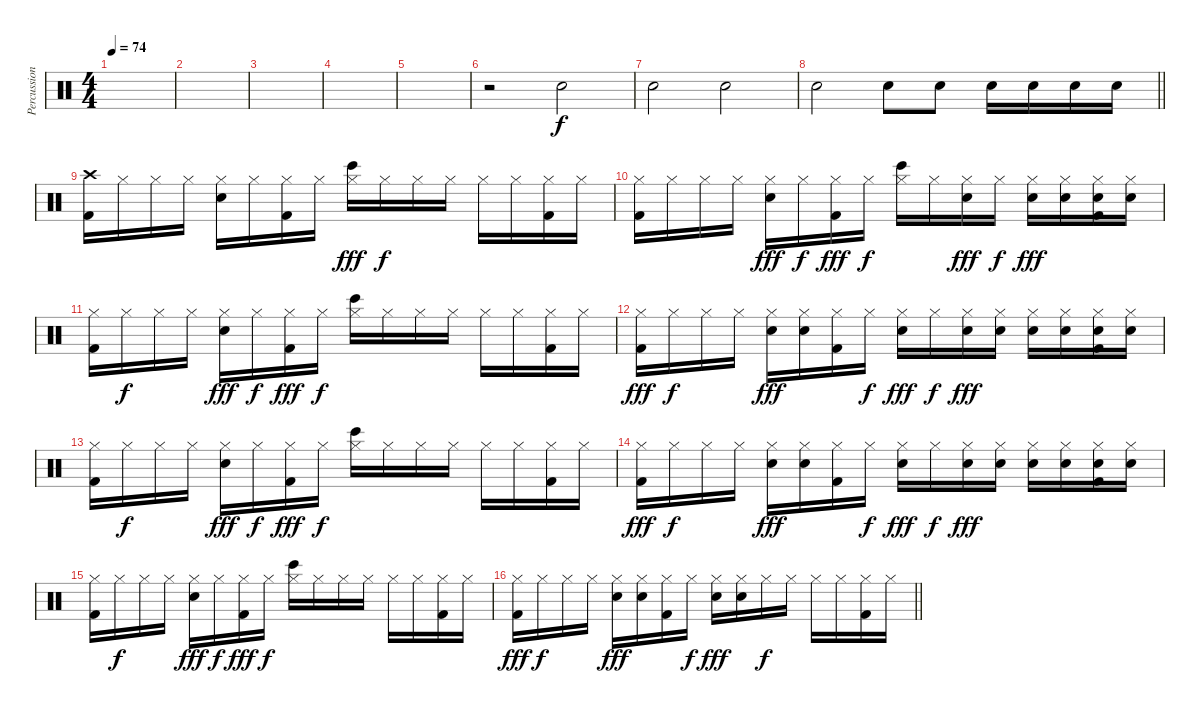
\track ("Percussion" "Percussion") {instrument percussion}
\staff {score}
\articulation defaults
\ts (4 4)
\section ("" "")
\tempo 74
\clef neutral
\ks c
|
|
|
|
|
r.2 "Snare (hit) 2".2 |
"Snare (hit) 2".2 "Snare (hit) 2".2 |
\barLineRight lightlight "Snare (hit) 2".2 "Snare (hit) 2".8 "Snare (hit) 2".8 "Snare (hit) 2".16 "Snare (hit) 2".16 "Snare (hit) 2".16 "Snare (hit) 2".16
|
\section ("" "")
("Crash high (hit)" "Kick (hit) 2").16 "Hi-Hat (closed)".16 "Hi-Hat (closed)".16 "Hi-Hat (closed)".16 ("Hi-Hat (closed)" "Snare (hit) 2").16 "Hi-Hat (closed)".16 ("Hi-Hat (closed)" "Kick (hit) 2").16 "Hi-Hat (closed)".16 ("Hi-Hat (closed)" "Bongo High (hit)").16{dy fff} "Hi-Hat (closed)".16{dy f} "Hi-Hat (closed)".16 "Hi-Hat (closed)".16 "Hi-Hat (closed)".16 "Hi-Hat (closed)".16 ("Hi-Hat (closed)" "Kick (hit) 2").16 "Hi-Hat (closed)".16 |
("Hi-Hat (closed)" "Kick (hit) 2").16 "Hi-Hat (closed)".16 "Hi-Hat (closed)".16 "Hi-Hat (closed)".16 ("Hi-Hat (closed)" "Snare (hit) 2").16{dy fff} "Hi-Hat (closed)".16{dy f} ("Hi-Hat (closed)" "Kick (hit) 2").16{dy fff} "Hi-Hat (closed)".16{dy f} ("Hi-Hat (closed)" "Bongo High (hit)").16 "Hi-Hat (closed)".16 ("Hi-Hat (closed)" "Snare (hit) 2").16{dy fff} "Hi-Hat (closed)".16{dy f} ("Hi-Hat (closed)" "Snare (hit) 2").16{dy fff} ("Hi-Hat (closed)" "Snare (hit) 2").16 ("Hi-Hat (closed)" "Snare (hit) 2" "Kick (hit) 2").16 ("Hi-Hat (closed)" "Snare (hit) 2").16 |
("Hi-Hat (closed)" "Kick (hit) 2").16 "Hi-Hat (closed)".16{dy f} "Hi-Hat (closed)".16 "Hi-Hat (closed)".16 ("Hi-Hat (closed)" "Snare (hit) 2").16{dy fff} "Hi-Hat (closed)".16{dy f} ("Hi-Hat (closed)" "Kick (hit) 2").16{dy fff} "Hi-Hat (closed)".16{dy f} ("Hi-Hat (closed)" "Bongo High (hit)").16 "Hi-Hat (closed)".16 "Hi-Hat (closed)".16 "Hi-Hat (closed)".16 "Hi-Hat (closed)".16 "Hi-Hat (closed)".16 ("Hi-Hat (closed)" "Kick (hit) 2").16 "Hi-Hat (closed)".16 |
("Hi-Hat (closed)" "Kick (hit) 2").16{dy fff} "Hi-Hat (closed)".16{dy f} "Hi-Hat (closed)".16 "Hi-Hat (closed)".16 ("Hi-Hat (closed)" "Snare (hit) 2").16{dy fff} ("Hi-Hat (closed)" "Snare (hit) 2").16 ("Hi-Hat (closed)" "Kick (hit) 2").16 "Hi-Hat (closed)".16{dy f} ("Hi-Hat (closed)" "Snare (hit) 2").16{dy fff} "Hi-Hat (closed)".16{dy f} ("Hi-Hat (closed)" "Snare (hit) 2").16{dy fff} ("Hi-Hat (closed)" "Snare (hit) 2").16 ("Hi-Hat (closed)" "Snare (hit) 2").16 ("Hi-Hat (closed)" "Snare (hit) 2").16 ("Hi-Hat (closed)" "Snare (hit) 2" "Kick (hit) 2").16 ("Hi-Hat (closed)" "Snare (hit) 2").16 |
("Hi-Hat (closed)" "Kick (hit) 2").16 "Hi-Hat (closed)".16{dy f} "Hi-Hat (closed)".16 "Hi-Hat (closed)".16 ("Hi-Hat (closed)" "Snare (hit) 2").16{dy fff} "Hi-Hat (closed)".16{dy f} ("Hi-Hat (closed)" "Kick (hit) 2").16{dy fff} "Hi-Hat (closed)".16{dy f} ("Hi-Hat (closed)" "Bongo High (hit)").16 "Hi-Hat (closed)".16 "Hi-Hat (closed)".16 "Hi-Hat (closed)".16 "Hi-Hat (closed)".16 "Hi-Hat (closed)".16 ("Hi-Hat (closed)" "Kick (hit) 2").16 "Hi-Hat (closed)".16 |
("Hi-Hat (closed)" "Kick (hit) 2").16{dy fff} "Hi-Hat (closed)".16{dy f} "Hi-Hat (closed)".16 "Hi-Hat (closed)".16 ("Hi-Hat (closed)" "Snare (hit) 2").16{dy fff} ("Hi-Hat (closed)" "Snare (hit) 2").16 ("Hi-Hat (closed)" "Kick (hit) 2").16 "Hi-Hat (closed)".16{dy f} ("Hi-Hat (closed)" "Snare (hit) 2").16{dy fff} "Hi-Hat (closed)".16{dy f} ("Hi-Hat (closed)" "Snare (hit) 2").16{dy fff} ("Hi-Hat (closed)" "Snare (hit) 2").16 ("Hi-Hat (closed)" "Snare (hit) 2").16 ("Hi-Hat (closed)" "Snare (hit) 2").16 ("Hi-Hat (closed)" "Snare (hit) 2" "Kick (hit) 2").16 ("Hi-Hat (closed)" "Snare (hit) 2").16 |
("Hi-Hat (closed)" "Kick (hit) 2").16 "Hi-Hat (closed)".16{dy f} "Hi-Hat (closed)".16 "Hi-Hat (closed)".16 ("Hi-Hat (closed)" "Snare (hit) 2").16{dy fff} "Hi-Hat (closed)".16{dy f} ("Hi-Hat (closed)" "Kick (hit) 2").16{dy fff} "Hi-Hat (closed)".16{dy f} ("Hi-Hat (closed)" "Bongo High (hit)").16 "Hi-Hat (closed)".16 "Hi-Hat (closed)".16 "Hi-Hat (closed)".16 "Hi-Hat (closed)".16 "Hi-Hat (closed)".16 ("Hi-Hat (closed)" "Kick (hit) 2").16 "Hi-Hat (closed)".16 |
\barLineRight lightlight
("Hi-Hat (closed)" "Kick (hit) 2").16{dy fff} "Hi-Hat (closed)".16{dy f} "Hi-Hat (closed)".16 "Hi-Hat (closed)".16 ("Hi-Hat (closed)" "Snare (hit) 2").16{dy fff} ("Hi-Hat (closed)" "Snare (hit) 2").16 ("Hi-Hat (closed)" "Kick (hit) 2").16 "Hi-Hat (closed)".16{dy f} ("Hi-Hat (closed)" "Snare (hit) 2").16{dy fff} ("Hi-Hat (closed)" "Snare (hit) 2").16 "Hi-Hat (closed)".16{dy f} "Hi-Hat (closed)".16 "Hi-Hat (closed)".16 "Hi-Hat (closed)".16 ("Hi-Hat (closed)" "Kick (hit) 2").16 "Hi-Hat (closed)".16
